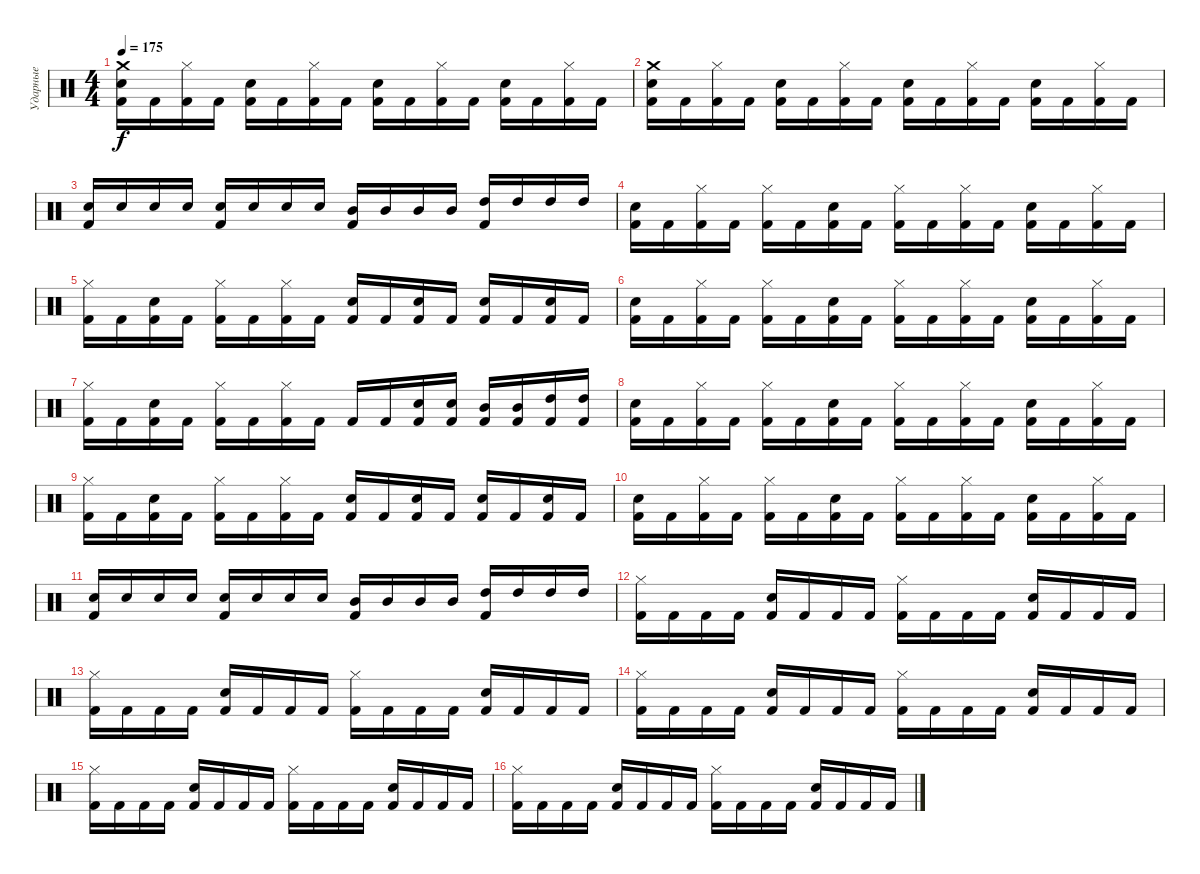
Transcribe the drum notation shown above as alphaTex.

\track ("Ударные" "Ударные") {instrument percussion}
\staff {score}
\articulation defaults
\ts (4 4)
\tempo 175
\clef neutral
\ks c
("Kick (hit) 2" "Snare (hit) 2" "Crash medium (hit)").16{dy f} "Kick (hit) 2".16 ("Kick (hit) 2" "Hi-Hat (closed)").16 "Kick (hit) 2".16 ("Kick (hit) 2" "Snare (hit) 2").16 "Kick (hit) 2".16 ("Kick (hit) 2" "Hi-Hat (closed)").16 "Kick (hit) 2".16 ("Kick (hit) 2" "Snare (hit) 2").16 "Kick (hit) 2".16 ("Kick (hit) 2" "Hi-Hat (closed)").16 "Kick (hit) 2".16 ("Kick (hit) 2" "Snare (hit) 2").16 "Kick (hit) 2".16 ("Kick (hit) 2" "Hi-Hat (closed)").16 "Kick (hit) 2".16 |
("Kick (hit) 2" "Snare (hit) 2" "Crash medium (hit)").16 "Kick (hit) 2".16 ("Kick (hit) 2" "Hi-Hat (closed)").16 "Kick (hit) 2".16 ("Kick (hit) 2" "Snare (hit) 2").16 "Kick (hit) 2".16 ("Kick (hit) 2" "Hi-Hat (closed)").16 "Kick (hit) 2".16 ("Kick (hit) 2" "Snare (hit) 2").16 "Kick (hit) 2".16 ("Kick (hit) 2" "Hi-Hat (closed)").16 "Kick (hit) 2".16 ("Kick (hit) 2" "Snare (hit) 2").16 "Kick (hit) 2".16 ("Kick (hit) 2" "Hi-Hat (closed)").16 "Kick (hit) 2".16 |
("Kick (hit) 2" "Snare (hit) 2").16 "Snare (hit) 2".16 "Snare (hit) 2".16 "Snare (hit) 2".16 ("Kick (hit) 2" "Electric Snare (hit)").16 "Electric Snare (hit)".16 "Electric Snare (hit)".16 "Electric Snare (hit)".16 ("Kick (hit) 2" "Mid Tom (hit)").16 "Mid Tom (hit)".16 "Mid Tom (hit)".16 "Mid Tom (hit)".16 ("Kick (hit) 2" "High Tom (hit)").16 "High Tom (hit)".16 "High Tom (hit)".16 "High Tom (hit)".16 |
("Kick (hit) 2" "Snare (hit) 2").16 "Kick (hit) 2".16 ("Kick (hit) 2" "Hi-Hat (closed)").16 "Kick (hit) 2".16 ("Kick (hit) 2" "Hi-Hat (closed)").16 "Kick (hit) 2".16 ("Kick (hit) 2" "Snare (hit) 2").16 "Kick (hit) 2".16 ("Kick (hit) 2" "Hi-Hat (closed)").16 "Kick (hit) 2".16 ("Kick (hit) 2" "Hi-Hat (closed)").16 "Kick (hit) 2".16 ("Kick (hit) 2" "Snare (hit) 2").16 "Kick (hit) 2".16 ("Kick (hit) 2" "Hi-Hat (closed)").16 "Kick (hit) 2".16 |
("Kick (hit) 2" "Hi-Hat (closed)").16 "Kick (hit) 2".16 ("Kick (hit) 2" "Snare (hit) 2").16 "Kick (hit) 2".16 ("Kick (hit) 2" "Hi-Hat (closed)").16 "Kick (hit) 2".16 ("Kick (hit) 2" "Hi-Hat (closed)").16 "Kick (hit) 2".16 ("Kick (hit) 2" "Snare (hit) 2").16 "Kick (hit) 2".16 ("Kick (hit) 2" "Snare (hit) 2").16 "Kick (hit) 2".16 ("Kick (hit) 2" "Snare (hit) 2").16 "Kick (hit) 2".16 ("Kick (hit) 2" "Snare (hit) 2").16 "Kick (hit) 2".16 |
("Kick (hit) 2" "Snare (hit) 2").16 "Kick (hit) 2".16 ("Kick (hit) 2" "Hi-Hat (closed)").16 "Kick (hit) 2".16 ("Kick (hit) 2" "Hi-Hat (closed)").16 "Kick (hit) 2".16 ("Kick (hit) 2" "Snare (hit) 2").16 "Kick (hit) 2".16 ("Kick (hit) 2" "Hi-Hat (closed)").16 "Kick (hit) 2".16 ("Kick (hit) 2" "Hi-Hat (closed)").16 "Kick (hit) 2".16 ("Kick (hit) 2" "Snare (hit) 2").16 "Kick (hit) 2".16 ("Kick (hit) 2" "Hi-Hat (closed)").16 "Kick (hit) 2".16 |
("Kick (hit) 2" "Hi-Hat (closed)").16 "Kick (hit) 2".16 ("Kick (hit) 2" "Snare (hit) 2").16 "Kick (hit) 2".16 ("Kick (hit) 2" "Hi-Hat (closed)").16 "Kick (hit) 2".16 ("Kick (hit) 2" "Hi-Hat (closed)").16 "Kick (hit) 2".16 "Kick (hit) 2".16 "Kick (hit) 2".16 ("Kick (hit) 2" "Electric Snare (hit)").16 ("Kick (hit) 2" "Electric Snare (hit)").16 ("Kick (hit) 2" "Mid Tom (hit)").16 ("Kick (hit) 2" "Mid Tom (hit)").16 ("Kick (hit) 2" "High Tom (hit)").16 ("Kick (hit) 2" "High Tom (hit)").16 |
("Kick (hit) 2" "Snare (hit) 2").16 "Kick (hit) 2".16 ("Kick (hit) 2" "Hi-Hat (closed)").16 "Kick (hit) 2".16 ("Kick (hit) 2" "Hi-Hat (closed)").16 "Kick (hit) 2".16 ("Kick (hit) 2" "Snare (hit) 2").16 "Kick (hit) 2".16 ("Kick (hit) 2" "Hi-Hat (closed)").16 "Kick (hit) 2".16 ("Kick (hit) 2" "Hi-Hat (closed)").16 "Kick (hit) 2".16 ("Kick (hit) 2" "Snare (hit) 2").16 "Kick (hit) 2".16 ("Kick (hit) 2" "Hi-Hat (closed)").16 "Kick (hit) 2".16 |
("Kick (hit) 2" "Hi-Hat (closed)").16 "Kick (hit) 2".16 ("Kick (hit) 2" "Snare (hit) 2").16 "Kick (hit) 2".16 ("Kick (hit) 2" "Hi-Hat (closed)").16 "Kick (hit) 2".16 ("Kick (hit) 2" "Hi-Hat (closed)").16 "Kick (hit) 2".16 ("Kick (hit) 2" "Snare (hit) 2").16 "Kick (hit) 2".16 ("Kick (hit) 2" "Snare (hit) 2").16 "Kick (hit) 2".16 ("Kick (hit) 2" "Snare (hit) 2").16 "Kick (hit) 2".16 ("Kick (hit) 2" "Snare (hit) 2").16 "Kick (hit) 2".16 |
("Kick (hit) 2" "Snare (hit) 2").16 "Kick (hit) 2".16 ("Kick (hit) 2" "Hi-Hat (closed)").16 "Kick (hit) 2".16 ("Kick (hit) 2" "Hi-Hat (closed)").16 "Kick (hit) 2".16 ("Kick (hit) 2" "Snare (hit) 2").16 "Kick (hit) 2".16 ("Kick (hit) 2" "Hi-Hat (closed)").16 "Kick (hit) 2".16 ("Kick (hit) 2" "Hi-Hat (closed)").16 "Kick (hit) 2".16 ("Kick (hit) 2" "Snare (hit) 2").16 "Kick (hit) 2".16 ("Kick (hit) 2" "Hi-Hat (closed)").16 "Kick (hit) 2".16 |
("Kick (hit) 2" "Snare (hit) 2").16 "Snare (hit) 2".16 "Snare (hit) 2".16 "Snare (hit) 2".16 ("Kick (hit) 2" "Electric Snare (hit)").16 "Electric Snare (hit)".16 "Electric Snare (hit)".16 "Electric Snare (hit)".16 ("Kick (hit) 2" "Mid Tom (hit)").16 "Mid Tom (hit)".16 "Mid Tom (hit)".16 "Mid Tom (hit)".16 ("Kick (hit) 2" "High Tom (hit)").16 "High Tom (hit)".16 "High Tom (hit)".16 "High Tom (hit)".16 |
("Kick (hit) 2" "Hi-Hat (closed)").16 "Kick (hit) 2".16 "Kick (hit) 2".16 "Kick (hit) 2".16 ("Kick (hit) 2" "Snare (hit) 2").16 "Kick (hit) 2".16 "Kick (hit) 2".16 "Kick (hit) 2".16 ("Kick (hit) 2" "Hi-Hat (closed)").16 "Kick (hit) 2".16 "Kick (hit) 2".16 "Kick (hit) 2".16 ("Kick (hit) 2" "Snare (hit) 2").16 "Kick (hit) 2".16 "Kick (hit) 2".16 "Kick (hit) 2".16 |
("Kick (hit) 2" "Hi-Hat (closed)").16 "Kick (hit) 2".16 "Kick (hit) 2".16 "Kick (hit) 2".16 ("Kick (hit) 2" "Snare (hit) 2").16 "Kick (hit) 2".16 "Kick (hit) 2".16 "Kick (hit) 2".16 ("Kick (hit) 2" "Hi-Hat (closed)").16 "Kick (hit) 2".16 "Kick (hit) 2".16 "Kick (hit) 2".16 ("Kick (hit) 2" "Snare (hit) 2").16 "Kick (hit) 2".16 "Kick (hit) 2".16 "Kick (hit) 2".16 |
("Kick (hit) 2" "Hi-Hat (closed)").16 "Kick (hit) 2".16 "Kick (hit) 2".16 "Kick (hit) 2".16 ("Kick (hit) 2" "Snare (hit) 2").16 "Kick (hit) 2".16 "Kick (hit) 2".16 "Kick (hit) 2".16 ("Kick (hit) 2" "Hi-Hat (closed)").16 "Kick (hit) 2".16 "Kick (hit) 2".16 "Kick (hit) 2".16 ("Kick (hit) 2" "Snare (hit) 2").16 "Kick (hit) 2".16 "Kick (hit) 2".16 "Kick (hit) 2".16 |
("Kick (hit) 2" "Hi-Hat (closed)").16 "Kick (hit) 2".16 "Kick (hit) 2".16 "Kick (hit) 2".16 ("Kick (hit) 2" "Snare (hit) 2").16 "Kick (hit) 2".16 "Kick (hit) 2".16 "Kick (hit) 2".16 ("Kick (hit) 2" "Hi-Hat (closed)").16 "Kick (hit) 2".16 "Kick (hit) 2".16 "Kick (hit) 2".16 ("Kick (hit) 2" "Snare (hit) 2").16 "Kick (hit) 2".16 "Kick (hit) 2".16 "Kick (hit) 2".16 |
("Kick (hit) 2" "Hi-Hat (closed)").16 "Kick (hit) 2".16 "Kick (hit) 2".16 "Kick (hit) 2".16 ("Kick (hit) 2" "Snare (hit) 2").16 "Kick (hit) 2".16 "Kick (hit) 2".16 "Kick (hit) 2".16 ("Kick (hit) 2" "Hi-Hat (closed)").16 "Kick (hit) 2".16 "Kick (hit) 2".16 "Kick (hit) 2".16 ("Kick (hit) 2" "Snare (hit) 2").16 "Kick (hit) 2".16 "Kick (hit) 2".16 "Kick (hit) 2".16
